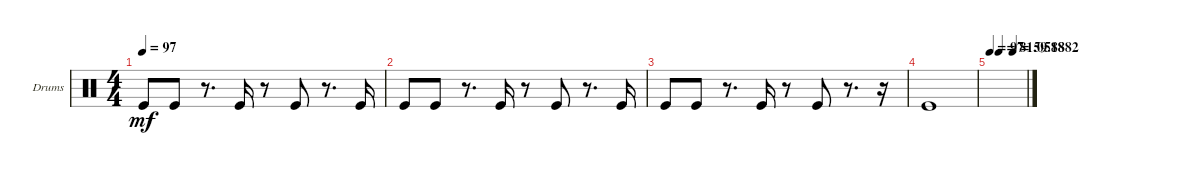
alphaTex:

\bracketExtendMode groupsimilarinstruments
\firstSystemTrackNameOrientation horizontal
\otherSystemsTrackNameOrientation horizontal
\track ("Kick" "Drums") {instrument percussion}
\staff {score}
\articulation defaults
\ts (4 4)
\tempo 97
\clef neutral
\ks c "Kick (hit)".8{dy mf} "Kick (hit)".8
r.8{d} "Kick (hit)".16 r.8 "Kick (hit)".8 r.8{d} "Kick (hit)".16 |
"Kick (hit)".8 "Kick (hit)".8 r.8{d} "Kick (hit)".16 r.8 "Kick (hit)".8 r.8{d} "Kick (hit)".16 |
"Kick (hit)".8 "Kick (hit)".8 r.8{d} "Kick (hit)".16 r.8 "Kick (hit)".8 r.8{d} r.16 |
"Kick (hit)".1 |
\tempo 97
\tempo (81.0588 0.25)
\tempo (59.1882 0.6375)
